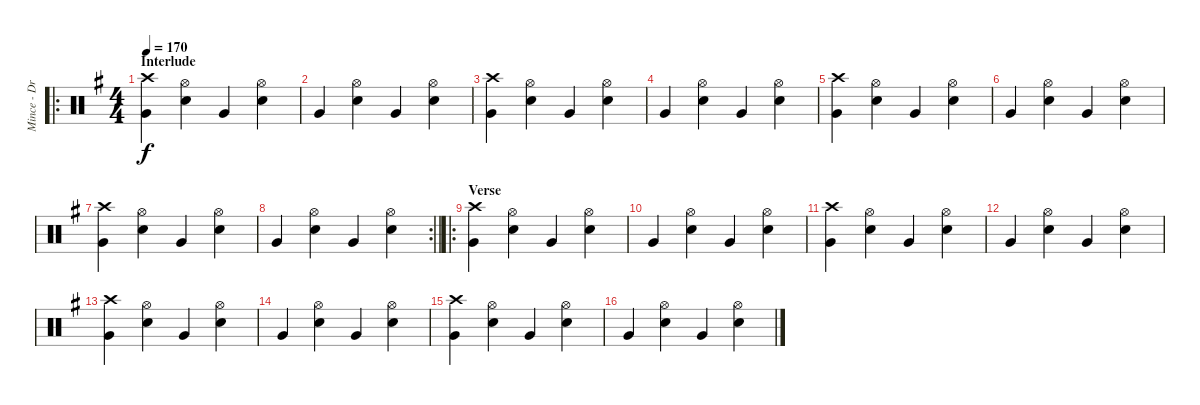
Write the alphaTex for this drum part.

\track ("Mince - Drums" "Mince - Dr") {instrument percussion}
\staff {score}
\articulation defaults
\ro
\ts (4 4)
\section ("" "Interlude")
\tempo 170
\clef neutral
\ks g
("Crash high (hit)" "Very Low Tom (hit)").4{dy f} ("Snare (hit) 2" "Hi-Hat (open)").4 "Very Low Tom (hit)".4 ("Snare (hit) 2" "Hi-Hat (open)").4 |
"Very Low Tom (hit)".4 ("Snare (hit) 2" "Hi-Hat (open)").4 "Very Low Tom (hit)".4 ("Snare (hit) 2" "Hi-Hat (open)").4 |
("Crash high (hit)" "Very Low Tom (hit)").4 ("Snare (hit) 2" "Hi-Hat (open)").4 "Very Low Tom (hit)".4 ("Snare (hit) 2" "Hi-Hat (open)").4 |
"Very Low Tom (hit)".4 ("Snare (hit) 2" "Hi-Hat (open)").4 "Very Low Tom (hit)".4 ("Snare (hit) 2" "Hi-Hat (open)").4 |
("Crash high (hit)" "Very Low Tom (hit)").4 ("Snare (hit) 2" "Hi-Hat (open)").4 "Very Low Tom (hit)".4 ("Snare (hit) 2" "Hi-Hat (open)").4 |
"Very Low Tom (hit)".4 ("Snare (hit) 2" "Hi-Hat (open)").4 "Very Low Tom (hit)".4 ("Snare (hit) 2" "Hi-Hat (open)").4 |
("Crash high (hit)" "Very Low Tom (hit)").4 ("Snare (hit) 2" "Hi-Hat (open)").4 "Very Low Tom (hit)".4 ("Snare (hit) 2" "Hi-Hat (open)").4 |
\rc 2
\barLineRight lightlight "Very Low Tom (hit)".4
("Snare (hit) 2" "Hi-Hat (open)").4 "Very Low Tom (hit)".4 ("Snare (hit) 2" "Hi-Hat (open)").4 |
\ro
\section ("" "Verse")
("Crash high (hit)" "Very Low Tom (hit)").4 ("Snare (hit) 2" "Hi-Hat (open)").4 "Very Low Tom (hit)".4 ("Snare (hit) 2" "Hi-Hat (open)").4 |
"Very Low Tom (hit)".4 ("Snare (hit) 2" "Hi-Hat (open)").4 "Very Low Tom (hit)".4 ("Snare (hit) 2" "Hi-Hat (open)").4 |
("Crash high (hit)" "Very Low Tom (hit)").4 ("Snare (hit) 2" "Hi-Hat (open)").4 "Very Low Tom (hit)".4 ("Snare (hit) 2" "Hi-Hat (open)").4 |
"Very Low Tom (hit)".4 ("Snare (hit) 2" "Hi-Hat (open)").4 "Very Low Tom (hit)".4 ("Snare (hit) 2" "Hi-Hat (open)").4 |
("Crash high (hit)" "Very Low Tom (hit)").4 ("Snare (hit) 2" "Hi-Hat (open)").4 "Very Low Tom (hit)".4 ("Snare (hit) 2" "Hi-Hat (open)").4 |
"Very Low Tom (hit)".4 ("Snare (hit) 2" "Hi-Hat (open)").4 "Very Low Tom (hit)".4 ("Snare (hit) 2" "Hi-Hat (open)").4 |
("Crash high (hit)" "Very Low Tom (hit)").4 ("Snare (hit) 2" "Hi-Hat (open)").4 "Very Low Tom (hit)".4 ("Snare (hit) 2" "Hi-Hat (open)").4 |
"Very Low Tom (hit)".4 ("Snare (hit) 2" "Hi-Hat (open)").4 "Very Low Tom (hit)".4 ("Snare (hit) 2" "Hi-Hat (open)").4
